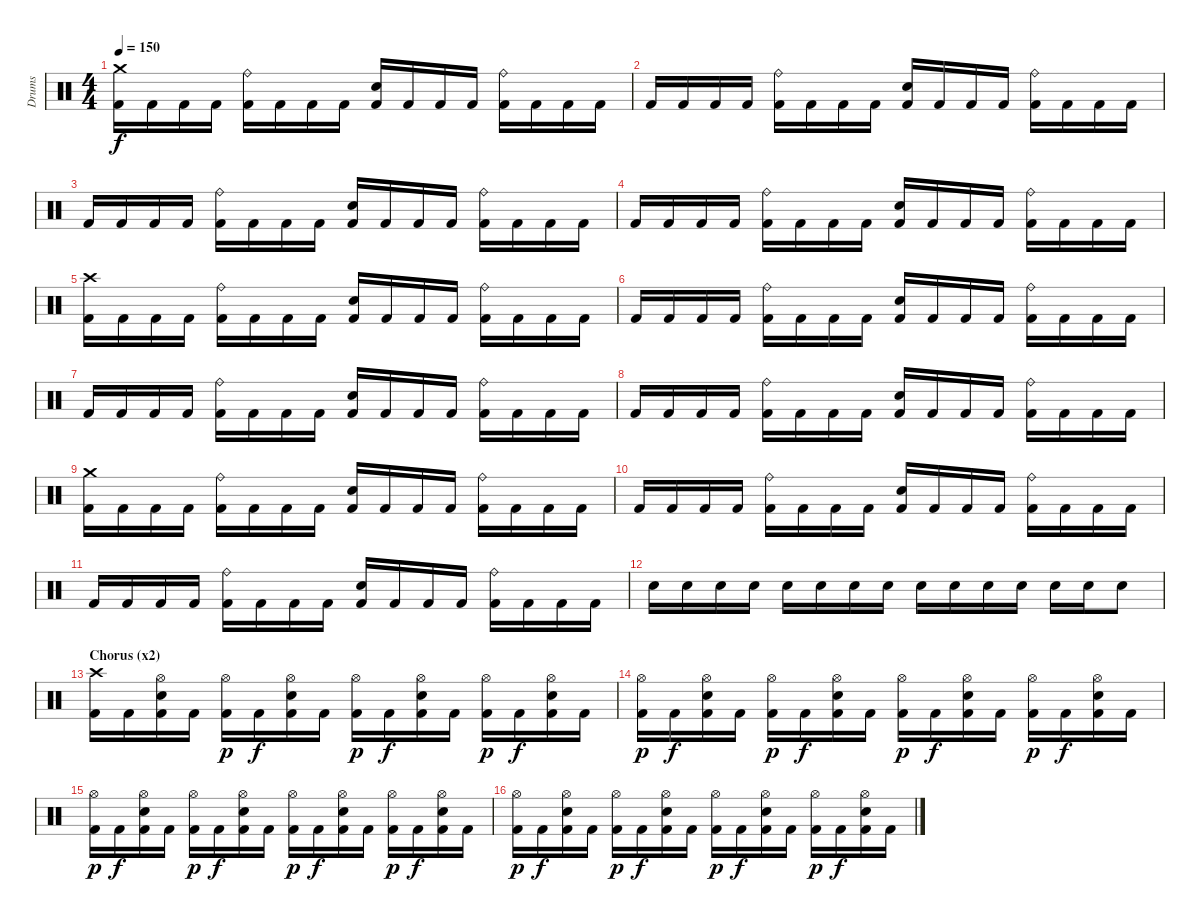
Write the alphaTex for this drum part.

\track ("Drums" "Drums") {instrument percussion}
\staff {score}
\articulation defaults
\ts (4 4)
\tempo 150
\clef neutral
\ks c
("Crash medium (hit)" "Kick (hit) 2").16{dy f} "Kick (hit) 2".16 "Kick (hit) 2".16 "Kick (hit) 2".16 ("Ride (bell)" "Kick (hit) 2").16 "Kick (hit) 2".16 "Kick (hit) 2".16 "Kick (hit) 2".16 ("Snare (hit) 2" "Kick (hit) 2").16 "Kick (hit) 2".16 "Kick (hit) 2".16 "Kick (hit) 2".16 ("Ride (bell)" "Kick (hit) 2").16 "Kick (hit) 2".16 "Kick (hit) 2".16 "Kick (hit) 2".16 |
"Kick (hit) 2".16 "Kick (hit) 2".16 "Kick (hit) 2".16 "Kick (hit) 2".16 ("Ride (bell)" "Kick (hit) 2").16 "Kick (hit) 2".16 "Kick (hit) 2".16 "Kick (hit) 2".16 ("Snare (hit) 2" "Kick (hit) 2").16 "Kick (hit) 2".16 "Kick (hit) 2".16 "Kick (hit) 2".16 ("Ride (bell)" "Kick (hit) 2").16 "Kick (hit) 2".16 "Kick (hit) 2".16 "Kick (hit) 2".16 |
"Kick (hit) 2".16 "Kick (hit) 2".16 "Kick (hit) 2".16 "Kick (hit) 2".16 ("Ride (bell)" "Kick (hit) 2").16 "Kick (hit) 2".16 "Kick (hit) 2".16 "Kick (hit) 2".16 ("Snare (hit) 2" "Kick (hit) 2").16 "Kick (hit) 2".16 "Kick (hit) 2".16 "Kick (hit) 2".16 ("Ride (bell)" "Kick (hit) 2").16 "Kick (hit) 2".16 "Kick (hit) 2".16 "Kick (hit) 2".16 |
"Kick (hit) 2".16 "Kick (hit) 2".16 "Kick (hit) 2".16 "Kick (hit) 2".16 ("Ride (bell)" "Kick (hit) 2").16 "Kick (hit) 2".16 "Kick (hit) 2".16 "Kick (hit) 2".16 ("Snare (hit) 2" "Kick (hit) 2").16 "Kick (hit) 2".16 "Kick (hit) 2".16 "Kick (hit) 2".16 ("Ride (bell)" "Kick (hit) 2").16 "Kick (hit) 2".16 "Kick (hit) 2".16 "Kick (hit) 2".16 |
("Crash high (hit)" "Kick (hit) 2").16 "Kick (hit) 2".16 "Kick (hit) 2".16 "Kick (hit) 2".16 ("Ride (bell)" "Kick (hit) 2").16 "Kick (hit) 2".16 "Kick (hit) 2".16 "Kick (hit) 2".16 ("Snare (hit) 2" "Kick (hit) 2").16 "Kick (hit) 2".16 "Kick (hit) 2".16 "Kick (hit) 2".16 ("Ride (bell)" "Kick (hit) 2").16 "Kick (hit) 2".16 "Kick (hit) 2".16 "Kick (hit) 2".16 |
"Kick (hit) 2".16 "Kick (hit) 2".16 "Kick (hit) 2".16 "Kick (hit) 2".16 ("Ride (bell)" "Kick (hit) 2").16 "Kick (hit) 2".16 "Kick (hit) 2".16 "Kick (hit) 2".16 ("Snare (hit) 2" "Kick (hit) 2").16 "Kick (hit) 2".16 "Kick (hit) 2".16 "Kick (hit) 2".16 ("Ride (bell)" "Kick (hit) 2").16 "Kick (hit) 2".16 "Kick (hit) 2".16 "Kick (hit) 2".16 |
"Kick (hit) 2".16 "Kick (hit) 2".16 "Kick (hit) 2".16 "Kick (hit) 2".16 ("Ride (bell)" "Kick (hit) 2").16 "Kick (hit) 2".16 "Kick (hit) 2".16 "Kick (hit) 2".16 ("Snare (hit) 2" "Kick (hit) 2").16 "Kick (hit) 2".16 "Kick (hit) 2".16 "Kick (hit) 2".16 ("Ride (bell)" "Kick (hit) 2").16 "Kick (hit) 2".16 "Kick (hit) 2".16 "Kick (hit) 2".16 |
"Kick (hit) 2".16 "Kick (hit) 2".16 "Kick (hit) 2".16 "Kick (hit) 2".16 ("Ride (bell)" "Kick (hit) 2").16 "Kick (hit) 2".16 "Kick (hit) 2".16 "Kick (hit) 2".16 ("Snare (hit) 2" "Kick (hit) 2").16 "Kick (hit) 2".16 "Kick (hit) 2".16 "Kick (hit) 2".16 ("Ride (bell)" "Kick (hit) 2").16 "Kick (hit) 2".16 "Kick (hit) 2".16 "Kick (hit) 2".16 |
("Crash medium (hit)" "Kick (hit) 2").16 "Kick (hit) 2".16 "Kick (hit) 2".16 "Kick (hit) 2".16 ("Ride (bell)" "Kick (hit) 2").16 "Kick (hit) 2".16 "Kick (hit) 2".16 "Kick (hit) 2".16 ("Snare (hit) 2" "Kick (hit) 2").16 "Kick (hit) 2".16 "Kick (hit) 2".16 "Kick (hit) 2".16 ("Ride (bell)" "Kick (hit) 2").16 "Kick (hit) 2".16 "Kick (hit) 2".16 "Kick (hit) 2".16 |
"Kick (hit) 2".16 "Kick (hit) 2".16 "Kick (hit) 2".16 "Kick (hit) 2".16 ("Ride (bell)" "Kick (hit) 2").16 "Kick (hit) 2".16 "Kick (hit) 2".16 "Kick (hit) 2".16 ("Snare (hit) 2" "Kick (hit) 2").16 "Kick (hit) 2".16 "Kick (hit) 2".16 "Kick (hit) 2".16 ("Ride (bell)" "Kick (hit) 2").16 "Kick (hit) 2".16 "Kick (hit) 2".16 "Kick (hit) 2".16 |
"Kick (hit) 2".16 "Kick (hit) 2".16 "Kick (hit) 2".16 "Kick (hit) 2".16 ("Ride (bell)" "Kick (hit) 2").16 "Kick (hit) 2".16 "Kick (hit) 2".16 "Kick (hit) 2".16 ("Snare (hit) 2" "Kick (hit) 2").16 "Kick (hit) 2".16 "Kick (hit) 2".16 "Kick (hit) 2".16 ("Ride (bell)" "Kick (hit) 2").16 "Kick (hit) 2".16 "Kick (hit) 2".16 "Kick (hit) 2".16 |
"Snare (hit) 2".16 "Snare (hit) 2".16 "Snare (hit) 2".16 "Snare (hit) 2".16 "Snare (hit) 2".16 "Snare (hit) 2".16 "Snare (hit) 2".16 "Snare (hit) 2".16 "Snare (hit) 2".16 "Snare (hit) 2".16 "Snare (hit) 2".16 "Snare (hit) 2".16 "Snare (hit) 2".16 "Snare (hit) 2".16 "Snare (hit) 2".8 |
\section ("" "Chorus (x2)")
("Crash high (hit)" "Kick (hit) 2").16 "Kick (hit) 2".16 ("Hi-Hat (open)" "Snare (hit) 2" "Kick (hit) 2").16 "Kick (hit) 2".16 ("Hi-Hat (open)" "Kick (hit) 2").16{dy p} "Kick (hit) 2".16{dy f} ("Hi-Hat (open)" "Snare (hit) 2" "Kick (hit) 2").16 "Kick (hit) 2".16 ("Hi-Hat (open)" "Kick (hit) 2").16{dy p} "Kick (hit) 2".16{dy f} ("Hi-Hat (open)" "Snare (hit) 2" "Kick (hit) 2").16 "Kick (hit) 2".16 ("Hi-Hat (open)" "Kick (hit) 2").16{dy p} "Kick (hit) 2".16{dy f} ("Hi-Hat (open)" "Snare (hit) 2" "Kick (hit) 2").16 "Kick (hit) 2".16 |
("Hi-Hat (open)" "Kick (hit) 2").16{dy p} "Kick (hit) 2".16{dy f} ("Hi-Hat (open)" "Snare (hit) 2" "Kick (hit) 2").16 "Kick (hit) 2".16 ("Hi-Hat (open)" "Kick (hit) 2").16{dy p} "Kick (hit) 2".16{dy f} ("Hi-Hat (open)" "Snare (hit) 2" "Kick (hit) 2").16 "Kick (hit) 2".16 ("Hi-Hat (open)" "Kick (hit) 2").16{dy p} "Kick (hit) 2".16{dy f} ("Hi-Hat (open)" "Snare (hit) 2" "Kick (hit) 2").16 "Kick (hit) 2".16 ("Hi-Hat (open)" "Kick (hit) 2").16{dy p} "Kick (hit) 2".16{dy f} ("Hi-Hat (open)" "Snare (hit) 2" "Kick (hit) 2").16 "Kick (hit) 2".16 |
("Hi-Hat (open)" "Kick (hit) 2").16{dy p} "Kick (hit) 2".16{dy f} ("Hi-Hat (open)" "Snare (hit) 2" "Kick (hit) 2").16 "Kick (hit) 2".16 ("Hi-Hat (open)" "Kick (hit) 2").16{dy p} "Kick (hit) 2".16{dy f} ("Hi-Hat (open)" "Snare (hit) 2" "Kick (hit) 2").16 "Kick (hit) 2".16 ("Hi-Hat (open)" "Kick (hit) 2").16{dy p} "Kick (hit) 2".16{dy f} ("Hi-Hat (open)" "Snare (hit) 2" "Kick (hit) 2").16 "Kick (hit) 2".16 ("Hi-Hat (open)" "Kick (hit) 2").16{dy p} "Kick (hit) 2".16{dy f} ("Hi-Hat (open)" "Snare (hit) 2" "Kick (hit) 2").16 "Kick (hit) 2".16 |
("Hi-Hat (open)" "Kick (hit) 2").16{dy p} "Kick (hit) 2".16{dy f} ("Hi-Hat (open)" "Snare (hit) 2" "Kick (hit) 2").16 "Kick (hit) 2".16 ("Hi-Hat (open)" "Kick (hit) 2").16{dy p} "Kick (hit) 2".16{dy f} ("Hi-Hat (open)" "Snare (hit) 2" "Kick (hit) 2").16 "Kick (hit) 2".16 ("Hi-Hat (open)" "Kick (hit) 2").16{dy p} "Kick (hit) 2".16{dy f} ("Hi-Hat (open)" "Snare (hit) 2" "Kick (hit) 2").16 "Kick (hit) 2".16 ("Hi-Hat (open)" "Kick (hit) 2").16{dy p} "Kick (hit) 2".16{dy f} ("Hi-Hat (open)" "Snare (hit) 2" "Kick (hit) 2").16 "Kick (hit) 2".16
